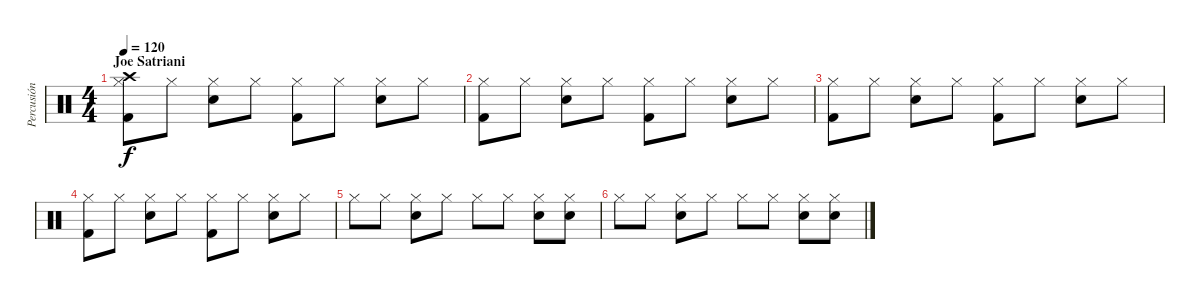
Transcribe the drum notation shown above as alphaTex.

\track ("Percusión" "Percusión") {instrument percussion}
\staff {score}
\articulation defaults
\ts (4 4)
\section ("" "Joe Satriani")
\tempo 120
\clef neutral
\ks c
("Kick (hit) 2" "Hi-Hat (closed)" "Crash high (hit)").8{dy f} "Hi-Hat (closed)".8 ("Snare (hit) 2" "Hi-Hat (closed)").8 "Hi-Hat (closed)".8 ("Kick (hit) 2" "Hi-Hat (closed)").8 "Hi-Hat (closed)".8 ("Snare (hit) 2" "Hi-Hat (closed)").8 "Hi-Hat (closed)".8 |
("Kick (hit) 2" "Hi-Hat (closed)").8 "Hi-Hat (closed)".8 ("Snare (hit) 2" "Hi-Hat (closed)").8 "Hi-Hat (closed)".8 ("Kick (hit) 2" "Hi-Hat (closed)").8 "Hi-Hat (closed)".8 ("Snare (hit) 2" "Hi-Hat (closed)").8 "Hi-Hat (closed)".8 |
("Kick (hit) 2" "Hi-Hat (closed)").8 "Hi-Hat (closed)".8 ("Snare (hit) 2" "Hi-Hat (closed)").8 "Hi-Hat (closed)".8 ("Kick (hit) 2" "Hi-Hat (closed)").8 "Hi-Hat (closed)".8 ("Snare (hit) 2" "Hi-Hat (closed)").8 "Hi-Hat (closed)".8 |
("Kick (hit) 2" "Hi-Hat (closed)").8 "Hi-Hat (closed)".8 ("Snare (hit) 2" "Hi-Hat (closed)").8 "Hi-Hat (closed)".8 ("Kick (hit) 2" "Hi-Hat (closed)").8 "Hi-Hat (closed)".8 ("Snare (hit) 2" "Hi-Hat (closed)").8 "Hi-Hat (closed)".8 |
"Hi-Hat (closed)".8 "Hi-Hat (closed)".8 ("Snare (hit) 2" "Hi-Hat (closed)").8 "Hi-Hat (closed)".8 "Hi-Hat (closed)".8 "Hi-Hat (closed)".8 ("Snare (hit) 2" "Hi-Hat (closed)").8 ("Snare (hit) 2" "Hi-Hat (closed)").8 |
"Hi-Hat (closed)".8 "Hi-Hat (closed)".8 ("Snare (hit) 2" "Hi-Hat (closed)").8 "Hi-Hat (closed)".8 "Hi-Hat (closed)".8 "Hi-Hat (closed)".8 ("Snare (hit) 2" "Hi-Hat (closed)").8 ("Snare (hit) 2" "Hi-Hat (closed)").8
